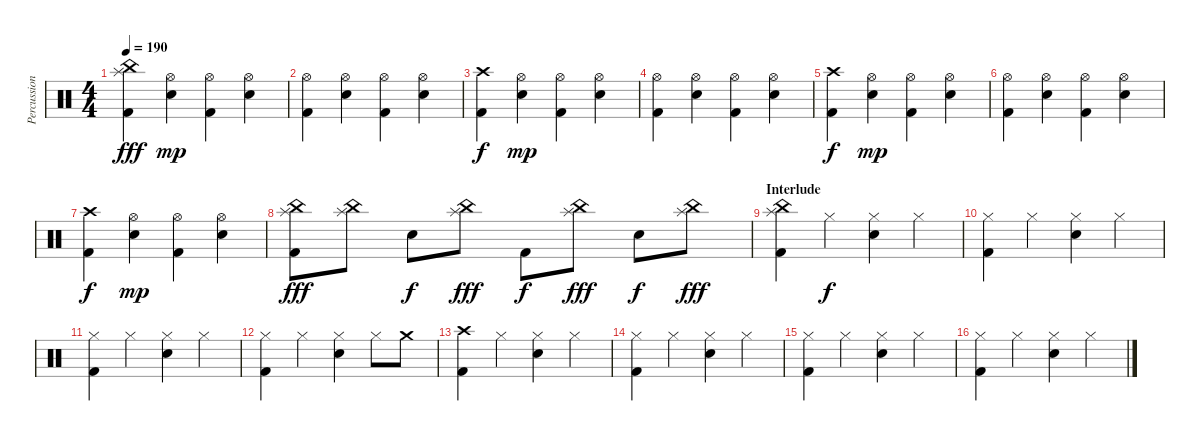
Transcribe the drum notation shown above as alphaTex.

\track ("Percussion" "Percussion") {instrument percussion}
\staff {score}
\articulation defaults
\ts (4 4)
\tempo 190
\clef neutral
\ks c
("China (hit)" "Splash (hit)" "Kick (hit) 2").4{dy fff} ("Hi-Hat (open)" "Electric Snare (hit)").4{dy mp} ("Hi-Hat (open)" "Kick (hit) 2").4 ("Hi-Hat (open)" "Electric Snare (hit)").4 |
("Hi-Hat (open)" "Kick (hit) 2").4 ("Hi-Hat (open)" "Electric Snare (hit)").4 ("Hi-Hat (open)" "Kick (hit) 2").4 ("Hi-Hat (open)" "Electric Snare (hit)").4 |
("Crash high (hit)" "Kick (hit) 2").4{dy f} ("Hi-Hat (open)" "Electric Snare (hit)").4{dy mp} ("Hi-Hat (open)" "Kick (hit) 2").4 ("Hi-Hat (open)" "Electric Snare (hit)").4 |
("Hi-Hat (open)" "Kick (hit) 2").4 ("Hi-Hat (open)" "Electric Snare (hit)").4 ("Hi-Hat (open)" "Kick (hit) 2").4 ("Hi-Hat (open)" "Electric Snare (hit)").4 |
("Crash high (hit)" "Kick (hit) 2").4{dy f} ("Hi-Hat (open)" "Electric Snare (hit)").4{dy mp} ("Hi-Hat (open)" "Kick (hit) 2").4 ("Hi-Hat (open)" "Electric Snare (hit)").4 |
("Hi-Hat (open)" "Kick (hit) 2").4 ("Hi-Hat (open)" "Electric Snare (hit)").4 ("Hi-Hat (open)" "Kick (hit) 2").4 ("Hi-Hat (open)" "Electric Snare (hit)").4 |
("Crash high (hit)" "Kick (hit) 2").4{dy f} ("Hi-Hat (open)" "Electric Snare (hit)").4{dy mp} ("Hi-Hat (open)" "Kick (hit) 2").4 ("Hi-Hat (open)" "Electric Snare (hit)").4 |
("China (hit)" "Splash (hit)" "Kick (hit) 2").8{dy fff} ("China (hit)" "Splash (hit)").8 "Electric Snare (hit)".8{dy f} ("China (hit)" "Splash (hit)").8{dy fff} "Kick (hit) 2".8{dy f} ("China (hit)" "Splash (hit)").8{dy fff} "Electric Snare (hit)".8{dy f} ("China (hit)" "Splash (hit)").8{dy fff} |
\section ("" "Interlude")
("China (hit)" "Splash (hit)" "Kick (hit) 2").4 "Hi-Hat (closed)".4{dy f} ("Hi-Hat (closed)" "Electric Snare (hit)").4 "Hi-Hat (closed)".4 |
("Hi-Hat (closed)" "Kick (hit) 2").4 "Hi-Hat (closed)".4 ("Hi-Hat (closed)" "Electric Snare (hit)").4 "Hi-Hat (closed)".4 |
("Hi-Hat (closed)" "Kick (hit) 2").4 "Hi-Hat (closed)".4 ("Hi-Hat (closed)" "Electric Snare (hit)").4 "Hi-Hat (closed)".4 |
("Hi-Hat (closed)" "Kick (hit) 2").4 "Hi-Hat (closed)".4 ("Hi-Hat (closed)" "Electric Snare (hit)").4 "Hi-Hat (closed)".8 "Crash medium (hit)".8 |
("Crash high (hit)" "Kick (hit) 2").4 "Hi-Hat (closed)".4 ("Hi-Hat (closed)" "Electric Snare (hit)").4 "Hi-Hat (closed)".4 |
("Hi-Hat (closed)" "Kick (hit) 2").4 "Hi-Hat (closed)".4 ("Hi-Hat (closed)" "Electric Snare (hit)").4 "Hi-Hat (closed)".4 |
("Hi-Hat (closed)" "Kick (hit) 2").4 "Hi-Hat (closed)".4 ("Hi-Hat (closed)" "Electric Snare (hit)").4 "Hi-Hat (closed)".4 |
("Hi-Hat (closed)" "Kick (hit) 2").4 "Hi-Hat (closed)".4 ("Hi-Hat (closed)" "Electric Snare (hit)").4 "Hi-Hat (closed)".4
